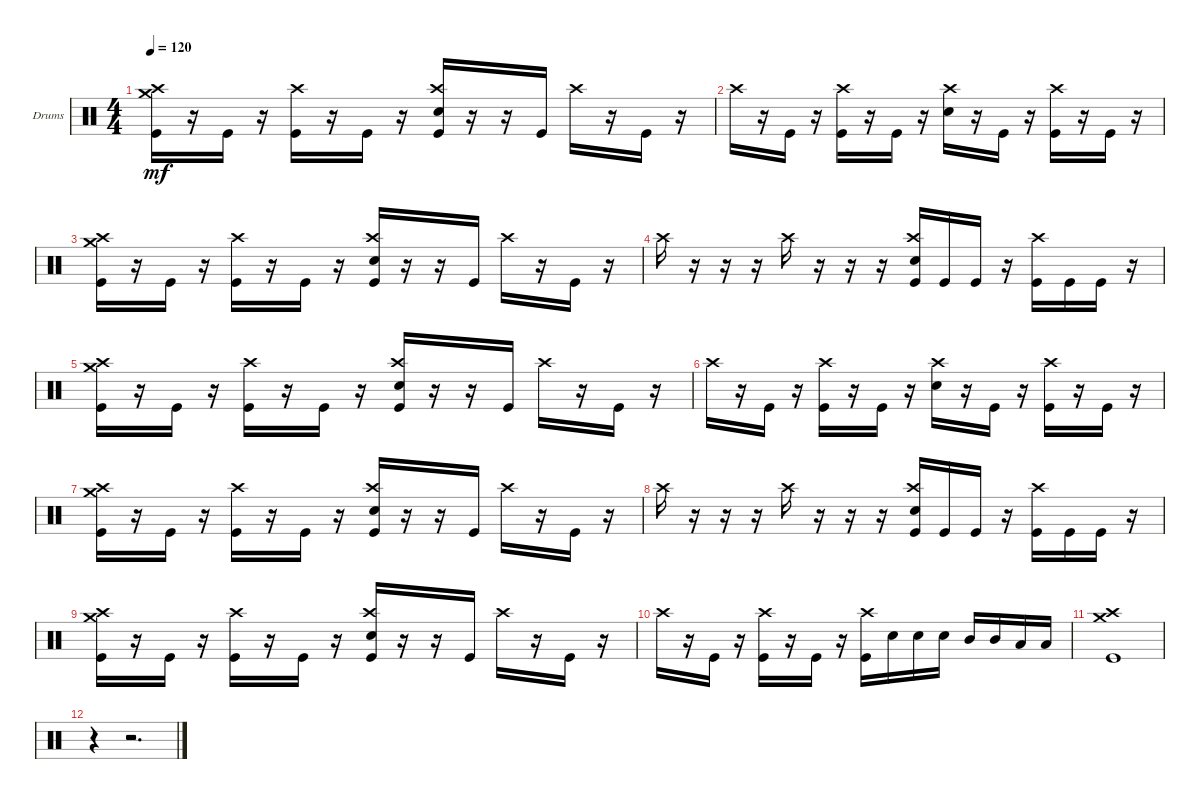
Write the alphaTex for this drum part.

\bracketExtendMode groupsimilarinstruments
\firstSystemTrackNameOrientation horizontal
\otherSystemsTrackNameOrientation horizontal
\track ("Drumkit" "Drums") {instrument percussion}
\staff {score}
\articulation defaults
\ts (4 4)
\tempo 120
\clef neutral
\ks c
("Kick (hit)" "Crash medium (hit)" "Crash high (hit)").16{dy mf} r.16 "Kick (hit)".16 r.16 ("Kick (hit)" "Crash high (hit)").16 r.16 "Kick (hit)".16 r.16 ("Kick (hit)" "Crash high (hit)" "Snare (hit) 2").16 r.16 r.16 "Kick (hit)".16 "Crash high (hit)".16 r.16 "Kick (hit)".16 r.16 |
"Crash high (hit)".16 r.16 "Kick (hit)".16 r.16 ("Kick (hit)" "Crash high (hit)").16 r.16 "Kick (hit)".16 r.16 ("Crash high (hit)" "Snare (hit) 2").16 r.16 "Kick (hit)".16 r.16 ("Kick (hit)" "Crash high (hit)").16 r.16 "Kick (hit)".16 r.16 |
("Kick (hit)" "Crash medium (hit)" "Crash high (hit)").16 r.16 "Kick (hit)".16 r.16 ("Kick (hit)" "Crash high (hit)").16 r.16 "Kick (hit)".16 r.16 ("Kick (hit)" "Crash high (hit)" "Snare (hit) 2").16 r.16 r.16 "Kick (hit)".16 "Crash high (hit)".16 r.16 "Kick (hit)".16 r.16 |
"Crash high (hit)".16 r.16 r.16 r.16 "Crash high (hit)".16 r.16 r.16 r.16 ("Kick (hit)" "Crash high (hit)" "Snare (hit) 2").16 "Kick (hit)".16 "Kick (hit)".16 r.16 ("Kick (hit)" "Crash high (hit)").16 "Kick (hit)".16 "Kick (hit)".16 r.16 |
("Kick (hit)" "Crash medium (hit)" "Crash high (hit)").16 r.16 "Kick (hit)".16 r.16 ("Kick (hit)" "Crash high (hit)").16 r.16 "Kick (hit)".16 r.16 ("Kick (hit)" "Crash high (hit)" "Snare (hit) 2").16 r.16 r.16 "Kick (hit)".16 "Crash high (hit)".16 r.16 "Kick (hit)".16 r.16 |
"Crash high (hit)".16 r.16 "Kick (hit)".16 r.16 ("Kick (hit)" "Crash high (hit)").16 r.16 "Kick (hit)".16 r.16 ("Crash high (hit)" "Snare (hit) 2").16 r.16 "Kick (hit)".16 r.16 ("Kick (hit)" "Crash high (hit)").16 r.16 "Kick (hit)".16 r.16 |
("Kick (hit)" "Crash medium (hit)" "Crash high (hit)").16 r.16 "Kick (hit)".16 r.16 ("Kick (hit)" "Crash high (hit)").16 r.16 "Kick (hit)".16 r.16 ("Kick (hit)" "Crash high (hit)" "Snare (hit) 2").16 r.16 r.16 "Kick (hit)".16 "Crash high (hit)".16 r.16 "Kick (hit)".16 r.16 |
"Crash high (hit)".16 r.16 r.16 r.16 "Crash high (hit)".16 r.16 r.16 r.16 ("Kick (hit)" "Crash high (hit)" "Snare (hit) 2").16 "Kick (hit)".16 "Kick (hit)".16 r.16 ("Kick (hit)" "Crash high (hit)").16 "Kick (hit)".16 "Kick (hit)".16 r.16 |
("Kick (hit)" "Crash medium (hit)" "Crash high (hit)").16 r.16 "Kick (hit)".16 r.16 ("Kick (hit)" "Crash high (hit)").16 r.16 "Kick (hit)".16 r.16 ("Kick (hit)" "Crash high (hit)" "Snare (hit) 2").16 r.16 r.16 "Kick (hit)".16 "Crash high (hit)".16 r.16 "Kick (hit)".16 r.16 |
"Crash high (hit)".16 r.16 "Kick (hit)".16 r.16 ("Kick (hit)" "Crash high (hit)").16 r.16 "Kick (hit)".16 r.16 ("Kick (hit)" "Crash high (hit)").16 "Snare (hit) 2".16 "Snare (hit) 2".16 "Snare (hit) 2".16 "Mid Tom (hit)".16 "Mid Tom (hit)".16 "Low Tom (hit)".16 "Low Tom (hit)".16 |
("Kick (hit)" "Crash medium (hit)" "Crash high (hit)").1 |
r.4 r.2{d}
